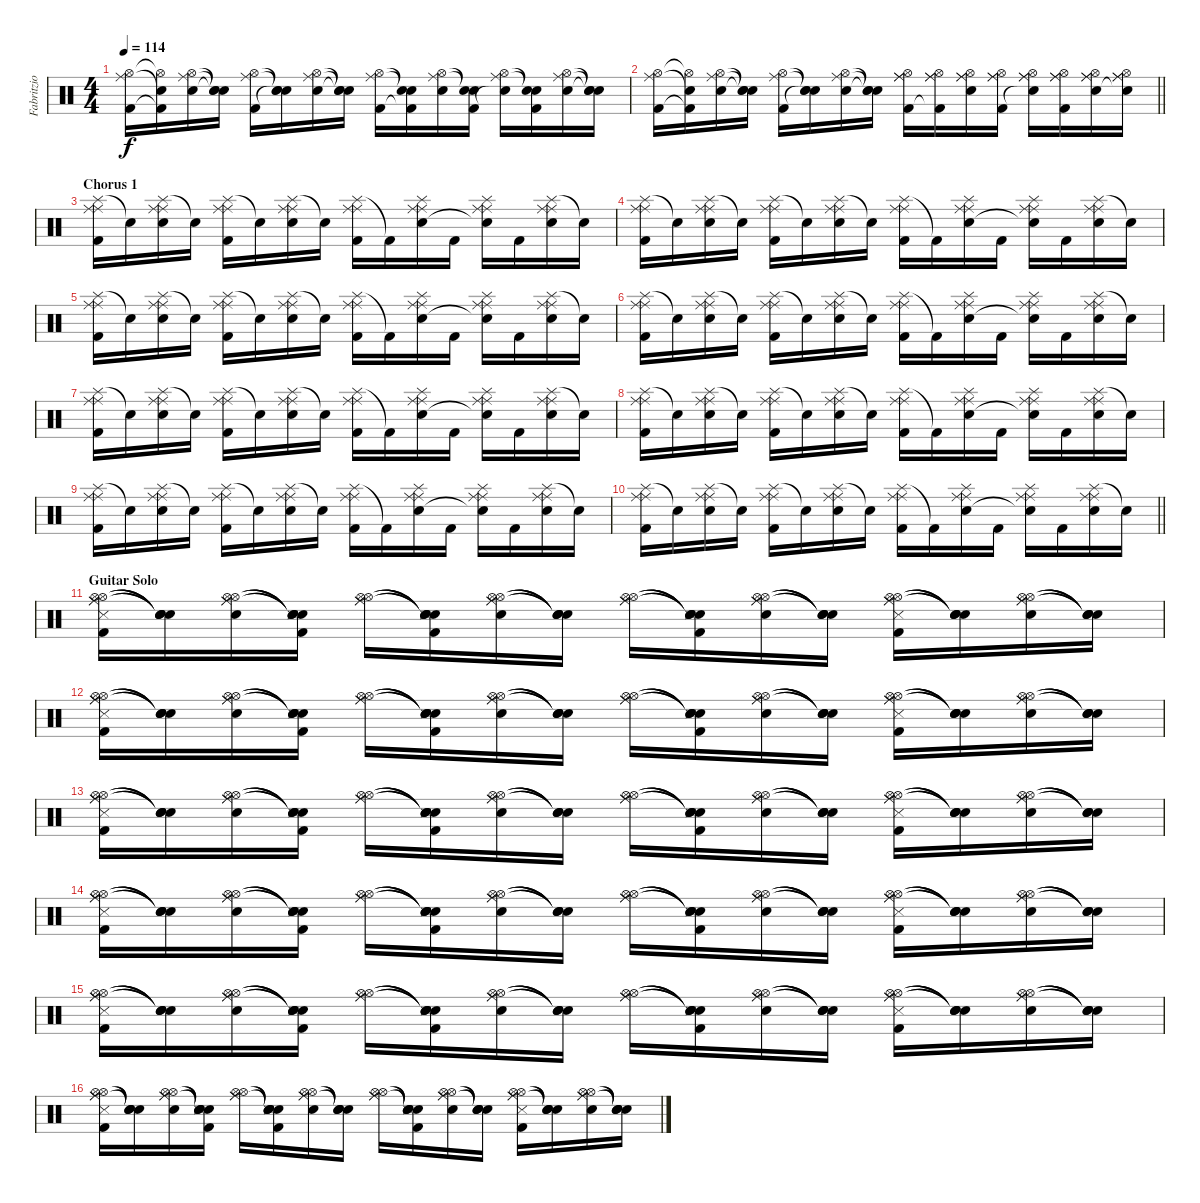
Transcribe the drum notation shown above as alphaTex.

\track ("Fabritzio Moretti" "Fabritzio ") {instrument percussion}
\staff {score}
\articulation defaults
\ts (4 4)
\tempo 114
\clef neutral
\ks c
("Hi-Hat (open)" "Ride (middle)" "Kick (hit) 2").16{dy f} ("Hi-Hat (open)"{t} "Snare (hit)"{t} "Kick (hit) 2"{t}).16 ("Hi-Hat (open)" "Ride (middle)" "Snare (hit) 2").16 ("Snare (hit)"{t} "Snare (hit)"{t} "Snare (hit)"{t}).16 ("Hi-Hat (open)" "Ride (middle)" "Kick (hit) 2").16 ("Snare (hit)"{t} "Snare (hit)"{t} "Snare (hit)"{t}).16 ("Hi-Hat (open)" "Ride (middle)" "Snare (hit) 2").16 ("Snare (hit)"{t} "Snare (hit)"{t} "Snare (hit)"{t}).16 ("Hi-Hat (open)" "Ride (middle)" "Kick (hit) 2").16 ("Snare (hit)"{t} "Snare (hit)"{t} "Kick (hit) 2"{t}).16 ("Hi-Hat (open)" "Ride (middle)" "Snare (hit) 2").16 ("Snare (hit)"{t} "Snare (hit)"{t} "Kick (hit) 2").16 ("Hi-Hat (open)" "Ride (middle)" "Snare (hit)"{t}).16 ("Snare (hit)"{t} "Snare (hit)"{t} "Kick (hit) 2").16 ("Hi-Hat (open)" "Ride (middle)" "Snare (hit) 2").16 ("Snare (hit)"{t} "Snare (hit)"{t} "Snare (hit)"{t}).16 |
\barLineRight lightlight
("Hi-Hat (open)" "Ride (middle)" "Kick (hit) 2").16 ("Hi-Hat (open)"{t} "Snare (hit)"{t} "Kick (hit) 2"{t}).16 ("Hi-Hat (open)" "Ride (middle)" "Snare (hit) 2").16 ("Snare (hit)"{t} "Snare (hit)"{t} "Snare (hit)"{t}).16 ("Hi-Hat (open)" "Ride (middle)" "Kick (hit) 2").16 ("Snare (hit)"{t} "Snare (hit)"{t} "Snare (hit)"{t}).16 ("Hi-Hat (open)" "Ride (middle)" "Snare (hit) 2").16 ("Snare (hit)"{t} "Snare (hit)"{t} "Snare (hit)"{t}).16 ("Ride (middle)" "Hi-Hat (open)" "Ride (middle)" "Kick (hit) 2").16 ("Ride (middle)" "Hi-Hat (open)" "Ride (middle)" "Kick (hit) 2"{t}).16 ("Ride (middle)" "Hi-Hat (open)" "Ride (middle)" "Snare (hit) 2").16 ("Ride (middle)" "Hi-Hat (open)" "Ride (middle)" "Kick (hit) 2").16 ("Ride (middle)" "Hi-Hat (open)" "Ride (middle)" "Snare (hit)"{t}).16 ("Ride (middle)" "Hi-Hat (open)" "Ride (middle)" "Kick (hit) 2").16 ("Ride (middle)" "Hi-Hat (open)" "Ride (middle)" "Snare (hit) 2").16 ("Ride (middle)" "Hi-Hat (open)" "Ride (middle)" "Snare (hit)"{t}).16 |
\section ("" "Chorus 1")
("Splash (hit)" "Ride (middle)" "Ride (middle)" "Kick (hit) 2").16 "Snare (hit)"{t}.16 ("Splash (hit)" "Ride (middle)" "Ride (middle)" "Snare (hit) 2").16 "Snare (hit)"{t}.16 ("Splash (hit)" "Ride (middle)" "Ride (middle)" "Kick (hit) 2").16 "Snare (hit)"{t}.16 ("Splash (hit)" "Ride (middle)" "Ride (middle)" "Snare (hit) 2").16 "Snare (hit)"{t}.16 ("Splash (hit)" "Ride (middle)" "Ride (middle)" "Kick (hit) 2").16 "Kick (hit) 2"{t}.16 ("Splash (hit)" "Ride (middle)" "Ride (middle)" "Snare (hit) 2").16 "Kick (hit) 2".16 ("Splash (hit)" "Ride (middle)" "Ride (middle)" "Snare (hit)"{t}).16 "Kick (hit) 2".16 ("Splash (hit)" "Ride (middle)" "Ride (middle)" "Snare (hit) 2").16 "Snare (hit)"{t}.16 |
("Splash (hit)" "Ride (middle)" "Ride (middle)" "Kick (hit) 2").16 "Snare (hit)"{t}.16 ("Splash (hit)" "Ride (middle)" "Ride (middle)" "Snare (hit) 2").16 "Snare (hit)"{t}.16 ("Splash (hit)" "Ride (middle)" "Ride (middle)" "Kick (hit) 2").16 "Snare (hit)"{t}.16 ("Splash (hit)" "Ride (middle)" "Ride (middle)" "Snare (hit) 2").16 "Snare (hit)"{t}.16 ("Splash (hit)" "Ride (middle)" "Ride (middle)" "Kick (hit) 2").16 "Kick (hit) 2"{t}.16 ("Splash (hit)" "Ride (middle)" "Ride (middle)" "Snare (hit) 2").16 "Kick (hit) 2".16 ("Splash (hit)" "Ride (middle)" "Ride (middle)" "Snare (hit)"{t}).16 "Kick (hit) 2".16 ("Splash (hit)" "Ride (middle)" "Ride (middle)" "Snare (hit) 2").16 "Snare (hit)"{t}.16 |
("Splash (hit)" "Ride (middle)" "Ride (middle)" "Kick (hit) 2").16 "Snare (hit)"{t}.16 ("Splash (hit)" "Ride (middle)" "Ride (middle)" "Snare (hit) 2").16 "Snare (hit)"{t}.16 ("Splash (hit)" "Ride (middle)" "Ride (middle)" "Kick (hit) 2").16 "Snare (hit)"{t}.16 ("Splash (hit)" "Ride (middle)" "Ride (middle)" "Snare (hit) 2").16 "Snare (hit)"{t}.16 ("Splash (hit)" "Ride (middle)" "Ride (middle)" "Kick (hit) 2").16 "Kick (hit) 2"{t}.16 ("Splash (hit)" "Ride (middle)" "Ride (middle)" "Snare (hit) 2").16 "Kick (hit) 2".16 ("Splash (hit)" "Ride (middle)" "Ride (middle)" "Snare (hit)"{t}).16 "Kick (hit) 2".16 ("Splash (hit)" "Ride (middle)" "Ride (middle)" "Snare (hit) 2").16 "Snare (hit)"{t}.16 |
("Splash (hit)" "Ride (middle)" "Ride (middle)" "Kick (hit) 2").16 "Snare (hit)"{t}.16 ("Splash (hit)" "Ride (middle)" "Ride (middle)" "Snare (hit) 2").16 "Snare (hit)"{t}.16 ("Splash (hit)" "Ride (middle)" "Ride (middle)" "Kick (hit) 2").16 "Snare (hit)"{t}.16 ("Splash (hit)" "Ride (middle)" "Ride (middle)" "Snare (hit) 2").16 "Snare (hit)"{t}.16 ("Splash (hit)" "Ride (middle)" "Ride (middle)" "Kick (hit) 2").16 "Kick (hit) 2"{t}.16 ("Splash (hit)" "Ride (middle)" "Ride (middle)" "Snare (hit) 2").16 "Kick (hit) 2".16 ("Splash (hit)" "Ride (middle)" "Ride (middle)" "Snare (hit)"{t}).16 "Kick (hit) 2".16 ("Splash (hit)" "Ride (middle)" "Ride (middle)" "Snare (hit) 2").16 "Snare (hit)"{t}.16 |
("Splash (hit)" "Ride (middle)" "Ride (middle)" "Kick (hit) 2").16 "Snare (hit)"{t}.16 ("Splash (hit)" "Ride (middle)" "Ride (middle)" "Snare (hit) 2").16 "Snare (hit)"{t}.16 ("Splash (hit)" "Ride (middle)" "Ride (middle)" "Kick (hit) 2").16 "Snare (hit)"{t}.16 ("Splash (hit)" "Ride (middle)" "Ride (middle)" "Snare (hit) 2").16 "Snare (hit)"{t}.16 ("Splash (hit)" "Ride (middle)" "Ride (middle)" "Kick (hit) 2").16 "Kick (hit) 2"{t}.16 ("Splash (hit)" "Ride (middle)" "Ride (middle)" "Snare (hit) 2").16 "Kick (hit) 2".16 ("Splash (hit)" "Ride (middle)" "Ride (middle)" "Snare (hit)"{t}).16 "Kick (hit) 2".16 ("Splash (hit)" "Ride (middle)" "Ride (middle)" "Snare (hit) 2").16 "Snare (hit)"{t}.16 |
("Splash (hit)" "Ride (middle)" "Ride (middle)" "Kick (hit) 2").16 "Snare (hit)"{t}.16 ("Splash (hit)" "Ride (middle)" "Ride (middle)" "Snare (hit) 2").16 "Snare (hit)"{t}.16 ("Splash (hit)" "Ride (middle)" "Ride (middle)" "Kick (hit) 2").16 "Snare (hit)"{t}.16 ("Splash (hit)" "Ride (middle)" "Ride (middle)" "Snare (hit) 2").16 "Snare (hit)"{t}.16 ("Splash (hit)" "Ride (middle)" "Ride (middle)" "Kick (hit) 2").16 "Kick (hit) 2"{t}.16 ("Splash (hit)" "Ride (middle)" "Ride (middle)" "Snare (hit) 2").16 "Kick (hit) 2".16 ("Splash (hit)" "Ride (middle)" "Ride (middle)" "Snare (hit)"{t}).16 "Kick (hit) 2".16 ("Splash (hit)" "Ride (middle)" "Ride (middle)" "Snare (hit) 2").16 "Snare (hit)"{t}.16 |
("Splash (hit)" "Ride (middle)" "Ride (middle)" "Kick (hit) 2").16 "Snare (hit)"{t}.16 ("Splash (hit)" "Ride (middle)" "Ride (middle)" "Snare (hit) 2").16 "Snare (hit)"{t}.16 ("Splash (hit)" "Ride (middle)" "Ride (middle)" "Kick (hit) 2").16 "Snare (hit)"{t}.16 ("Splash (hit)" "Ride (middle)" "Ride (middle)" "Snare (hit) 2").16 "Snare (hit)"{t}.16 ("Splash (hit)" "Ride (middle)" "Ride (middle)" "Kick (hit) 2").16 "Kick (hit) 2"{t}.16 ("Splash (hit)" "Ride (middle)" "Ride (middle)" "Snare (hit) 2").16 "Kick (hit) 2".16 ("Splash (hit)" "Ride (middle)" "Ride (middle)" "Snare (hit)"{t}).16 "Kick (hit) 2".16 ("Splash (hit)" "Ride (middle)" "Ride (middle)" "Snare (hit) 2").16 "Snare (hit)"{t}.16 |
\barLineRight lightlight
("Splash (hit)" "Ride (middle)" "Ride (middle)" "Kick (hit) 2").16 "Snare (hit)"{t}.16 ("Splash (hit)" "Ride (middle)" "Ride (middle)" "Snare (hit) 2").16 "Snare (hit)"{t}.16 ("Splash (hit)" "Ride (middle)" "Ride (middle)" "Kick (hit) 2").16 "Snare (hit)"{t}.16 ("Splash (hit)" "Ride (middle)" "Ride (middle)" "Snare (hit) 2").16 "Snare (hit)"{t}.16 ("Splash (hit)" "Ride (middle)" "Ride (middle)" "Kick (hit) 2").16 "Kick (hit) 2"{t}.16 ("Splash (hit)" "Ride (middle)" "Ride (middle)" "Snare (hit) 2").16 "Kick (hit) 2".16 ("Splash (hit)" "Ride (middle)" "Ride (middle)" "Snare (hit)"{t}).16 "Kick (hit) 2".16 ("Splash (hit)" "Ride (middle)" "Ride (middle)" "Snare (hit) 2").16 "Snare (hit)"{t}.16 |
\section ("" "Guitar Solo")
("Ride (middle)" "Hi-Hat (open)" "Hi-Hat (open)" "Ride (middle)" "Snare (side stick) 3" "Kick (hit) 2").16 ("Snare (hit)"{t} "Snare (hit)"{t} "Snare (hit)"{t} "Snare (hit)"{t}).16 ("Ride (middle)" "Hi-Hat (open)" "Hi-Hat (open)" "Ride (middle)" "Snare (hit) 2").16 ("Snare (hit)"{t} "Snare (hit)"{t} "Snare (hit)"{t} "Snare (hit)"{t} "Snare (side stick) 3" "Kick (hit) 2").16 ("Ride (middle)" "Hi-Hat (open)" "Hi-Hat (open)" "Ride (middle)").16 ("Snare (hit)"{t} "Snare (hit)"{t} "Snare (hit)"{t} "Snare (hit)"{t} "Snare (side stick) 3" "Kick (hit) 2").16 ("Ride (middle)" "Hi-Hat (open)" "Hi-Hat (open)" "Ride (middle)" "Snare (hit) 2").16 ("Snare (hit)"{t} "Snare (hit)"{t} "Snare (hit)"{t} "Snare (hit)"{t}).16 ("Ride (middle)" "Hi-Hat (open)" "Hi-Hat (open)" "Ride (middle)").16 ("Snare (hit)"{t} "Snare (hit)"{t} "Snare (hit)"{t} "Snare (hit)"{t} "Snare (side stick) 3" "Kick (hit) 2").16 ("Ride (middle)" "Hi-Hat (open)" "Hi-Hat (open)" "Ride (middle)" "Snare (hit) 2").16 ("Snare (hit)"{t} "Snare (hit)"{t} "Snare (hit)"{t} "Snare (hit)"{t}).16 ("Ride (middle)" "Hi-Hat (open)" "Hi-Hat (open)" "Ride (middle)" "Snare (side stick) 3" "Kick (hit) 2").16 ("Snare (hit)"{t} "Snare (hit)"{t} "Snare (hit)"{t} "Snare (hit)"{t}).16 ("Ride (middle)" "Hi-Hat (open)" "Hi-Hat (open)" "Ride (middle)" "Snare (hit) 2").16 ("Snare (hit)"{t} "Snare (hit)"{t} "Snare (hit)"{t} "Snare (hit)"{t}).16 |
("Ride (middle)" "Hi-Hat (open)" "Hi-Hat (open)" "Ride (middle)" "Snare (side stick) 3" "Kick (hit) 2").16 ("Snare (hit)"{t} "Snare (hit)"{t} "Snare (hit)"{t} "Snare (hit)"{t}).16 ("Ride (middle)" "Hi-Hat (open)" "Hi-Hat (open)" "Ride (middle)" "Snare (hit) 2").16 ("Snare (hit)"{t} "Snare (hit)"{t} "Snare (hit)"{t} "Snare (hit)"{t} "Snare (side stick) 3" "Kick (hit) 2").16 ("Ride (middle)" "Hi-Hat (open)" "Hi-Hat (open)" "Ride (middle)").16 ("Snare (hit)"{t} "Snare (hit)"{t} "Snare (hit)"{t} "Snare (hit)"{t} "Snare (side stick) 3" "Kick (hit) 2").16 ("Ride (middle)" "Hi-Hat (open)" "Hi-Hat (open)" "Ride (middle)" "Snare (hit) 2").16 ("Snare (hit)"{t} "Snare (hit)"{t} "Snare (hit)"{t} "Snare (hit)"{t}).16 ("Ride (middle)" "Hi-Hat (open)" "Hi-Hat (open)" "Ride (middle)").16 ("Snare (hit)"{t} "Snare (hit)"{t} "Snare (hit)"{t} "Snare (hit)"{t} "Snare (side stick) 3" "Kick (hit) 2").16 ("Ride (middle)" "Hi-Hat (open)" "Hi-Hat (open)" "Ride (middle)" "Snare (hit) 2").16 ("Snare (hit)"{t} "Snare (hit)"{t} "Snare (hit)"{t} "Snare (hit)"{t}).16 ("Ride (middle)" "Hi-Hat (open)" "Hi-Hat (open)" "Ride (middle)" "Snare (side stick) 3" "Kick (hit) 2").16 ("Snare (hit)"{t} "Snare (hit)"{t} "Snare (hit)"{t} "Snare (hit)"{t}).16 ("Ride (middle)" "Hi-Hat (open)" "Hi-Hat (open)" "Ride (middle)" "Snare (hit) 2").16 ("Snare (hit)"{t} "Snare (hit)"{t} "Snare (hit)"{t} "Snare (hit)"{t}).16 |
("Ride (middle)" "Hi-Hat (open)" "Hi-Hat (open)" "Ride (middle)" "Snare (side stick) 3" "Kick (hit) 2").16 ("Snare (hit)"{t} "Snare (hit)"{t} "Snare (hit)"{t} "Snare (hit)"{t}).16 ("Ride (middle)" "Hi-Hat (open)" "Hi-Hat (open)" "Ride (middle)" "Snare (hit) 2").16 ("Snare (hit)"{t} "Snare (hit)"{t} "Snare (hit)"{t} "Snare (hit)"{t} "Snare (side stick) 3" "Kick (hit) 2").16 ("Ride (middle)" "Hi-Hat (open)" "Hi-Hat (open)" "Ride (middle)").16 ("Snare (hit)"{t} "Snare (hit)"{t} "Snare (hit)"{t} "Snare (hit)"{t} "Snare (side stick) 3" "Kick (hit) 2").16 ("Ride (middle)" "Hi-Hat (open)" "Hi-Hat (open)" "Ride (middle)" "Snare (hit) 2").16 ("Snare (hit)"{t} "Snare (hit)"{t} "Snare (hit)"{t} "Snare (hit)"{t}).16 ("Ride (middle)" "Hi-Hat (open)" "Hi-Hat (open)" "Ride (middle)").16 ("Snare (hit)"{t} "Snare (hit)"{t} "Snare (hit)"{t} "Snare (hit)"{t} "Snare (side stick) 3" "Kick (hit) 2").16 ("Ride (middle)" "Hi-Hat (open)" "Hi-Hat (open)" "Ride (middle)" "Snare (hit) 2").16 ("Snare (hit)"{t} "Snare (hit)"{t} "Snare (hit)"{t} "Snare (hit)"{t}).16 ("Ride (middle)" "Hi-Hat (open)" "Hi-Hat (open)" "Ride (middle)" "Snare (side stick) 3" "Kick (hit) 2").16 ("Snare (hit)"{t} "Snare (hit)"{t} "Snare (hit)"{t} "Snare (hit)"{t}).16 ("Ride (middle)" "Hi-Hat (open)" "Hi-Hat (open)" "Ride (middle)" "Snare (hit) 2").16 ("Snare (hit)"{t} "Snare (hit)"{t} "Snare (hit)"{t} "Snare (hit)"{t}).16 |
("Ride (middle)" "Hi-Hat (open)" "Hi-Hat (open)" "Ride (middle)" "Snare (side stick) 3" "Kick (hit) 2").16 ("Snare (hit)"{t} "Snare (hit)"{t} "Snare (hit)"{t} "Snare (hit)"{t}).16 ("Ride (middle)" "Hi-Hat (open)" "Hi-Hat (open)" "Ride (middle)" "Snare (hit) 2").16 ("Snare (hit)"{t} "Snare (hit)"{t} "Snare (hit)"{t} "Snare (hit)"{t} "Snare (side stick) 3" "Kick (hit) 2").16 ("Ride (middle)" "Hi-Hat (open)" "Hi-Hat (open)" "Ride (middle)").16 ("Snare (hit)"{t} "Snare (hit)"{t} "Snare (hit)"{t} "Snare (hit)"{t} "Snare (side stick) 3" "Kick (hit) 2").16 ("Ride (middle)" "Hi-Hat (open)" "Hi-Hat (open)" "Ride (middle)" "Snare (hit) 2").16 ("Snare (hit)"{t} "Snare (hit)"{t} "Snare (hit)"{t} "Snare (hit)"{t}).16 ("Ride (middle)" "Hi-Hat (open)" "Hi-Hat (open)" "Ride (middle)").16 ("Snare (hit)"{t} "Snare (hit)"{t} "Snare (hit)"{t} "Snare (hit)"{t} "Snare (side stick) 3" "Kick (hit) 2").16 ("Ride (middle)" "Hi-Hat (open)" "Hi-Hat (open)" "Ride (middle)" "Snare (hit) 2").16 ("Snare (hit)"{t} "Snare (hit)"{t} "Snare (hit)"{t} "Snare (hit)"{t}).16 ("Ride (middle)" "Hi-Hat (open)" "Hi-Hat (open)" "Ride (middle)" "Snare (side stick) 3" "Kick (hit) 2").16 ("Snare (hit)"{t} "Snare (hit)"{t} "Snare (hit)"{t} "Snare (hit)"{t}).16 ("Ride (middle)" "Hi-Hat (open)" "Hi-Hat (open)" "Ride (middle)" "Snare (hit) 2").16 ("Snare (hit)"{t} "Snare (hit)"{t} "Snare (hit)"{t} "Snare (hit)"{t}).16 |
("Ride (middle)" "Hi-Hat (open)" "Hi-Hat (open)" "Ride (middle)" "Snare (side stick) 3" "Kick (hit) 2").16 ("Snare (hit)"{t} "Snare (hit)"{t} "Snare (hit)"{t} "Snare (hit)"{t}).16 ("Ride (middle)" "Hi-Hat (open)" "Hi-Hat (open)" "Ride (middle)" "Snare (hit) 2").16 ("Snare (hit)"{t} "Snare (hit)"{t} "Snare (hit)"{t} "Snare (hit)"{t} "Snare (side stick) 3" "Kick (hit) 2").16 ("Ride (middle)" "Hi-Hat (open)" "Hi-Hat (open)" "Ride (middle)").16 ("Snare (hit)"{t} "Snare (hit)"{t} "Snare (hit)"{t} "Snare (hit)"{t} "Snare (side stick) 3" "Kick (hit) 2").16 ("Ride (middle)" "Hi-Hat (open)" "Hi-Hat (open)" "Ride (middle)" "Snare (hit) 2").16 ("Snare (hit)"{t} "Snare (hit)"{t} "Snare (hit)"{t} "Snare (hit)"{t}).16 ("Ride (middle)" "Hi-Hat (open)" "Hi-Hat (open)" "Ride (middle)").16 ("Snare (hit)"{t} "Snare (hit)"{t} "Snare (hit)"{t} "Snare (hit)"{t} "Snare (side stick) 3" "Kick (hit) 2").16 ("Ride (middle)" "Hi-Hat (open)" "Hi-Hat (open)" "Ride (middle)" "Snare (hit) 2").16 ("Snare (hit)"{t} "Snare (hit)"{t} "Snare (hit)"{t} "Snare (hit)"{t}).16 ("Ride (middle)" "Hi-Hat (open)" "Hi-Hat (open)" "Ride (middle)" "Snare (side stick) 3" "Kick (hit) 2").16 ("Snare (hit)"{t} "Snare (hit)"{t} "Snare (hit)"{t} "Snare (hit)"{t}).16 ("Ride (middle)" "Hi-Hat (open)" "Hi-Hat (open)" "Ride (middle)" "Snare (hit) 2").16 ("Snare (hit)"{t} "Snare (hit)"{t} "Snare (hit)"{t} "Snare (hit)"{t}).16 |
("Ride (middle)" "Hi-Hat (open)" "Hi-Hat (open)" "Ride (middle)" "Snare (side stick) 3" "Kick (hit) 2").16 ("Snare (hit)"{t} "Snare (hit)"{t} "Snare (hit)"{t} "Snare (hit)"{t}).16 ("Ride (middle)" "Hi-Hat (open)" "Hi-Hat (open)" "Ride (middle)" "Snare (hit) 2").16 ("Snare (hit)"{t} "Snare (hit)"{t} "Snare (hit)"{t} "Snare (hit)"{t} "Snare (side stick) 3" "Kick (hit) 2").16 ("Ride (middle)" "Hi-Hat (open)" "Hi-Hat (open)" "Ride (middle)").16 ("Snare (hit)"{t} "Snare (hit)"{t} "Snare (hit)"{t} "Snare (hit)"{t} "Snare (side stick) 3" "Kick (hit) 2").16 ("Ride (middle)" "Hi-Hat (open)" "Hi-Hat (open)" "Ride (middle)" "Snare (hit) 2").16 ("Snare (hit)"{t} "Snare (hit)"{t} "Snare (hit)"{t} "Snare (hit)"{t}).16 ("Ride (middle)" "Hi-Hat (open)" "Hi-Hat (open)" "Ride (middle)").16 ("Snare (hit)"{t} "Snare (hit)"{t} "Snare (hit)"{t} "Snare (hit)"{t} "Snare (side stick) 3" "Kick (hit) 2").16 ("Ride (middle)" "Hi-Hat (open)" "Hi-Hat (open)" "Ride (middle)" "Snare (hit) 2").16 ("Snare (hit)"{t} "Snare (hit)"{t} "Snare (hit)"{t} "Snare (hit)"{t}).16 ("Ride (middle)" "Hi-Hat (open)" "Hi-Hat (open)" "Ride (middle)" "Snare (side stick) 3" "Kick (hit) 2").16 ("Snare (hit)"{t} "Snare (hit)"{t} "Snare (hit)"{t} "Snare (hit)"{t}).16 ("Ride (middle)" "Hi-Hat (open)" "Hi-Hat (open)" "Ride (middle)" "Snare (hit) 2").16 ("Snare (hit)"{t} "Snare (hit)"{t} "Snare (hit)"{t} "Snare (hit)"{t}).16
